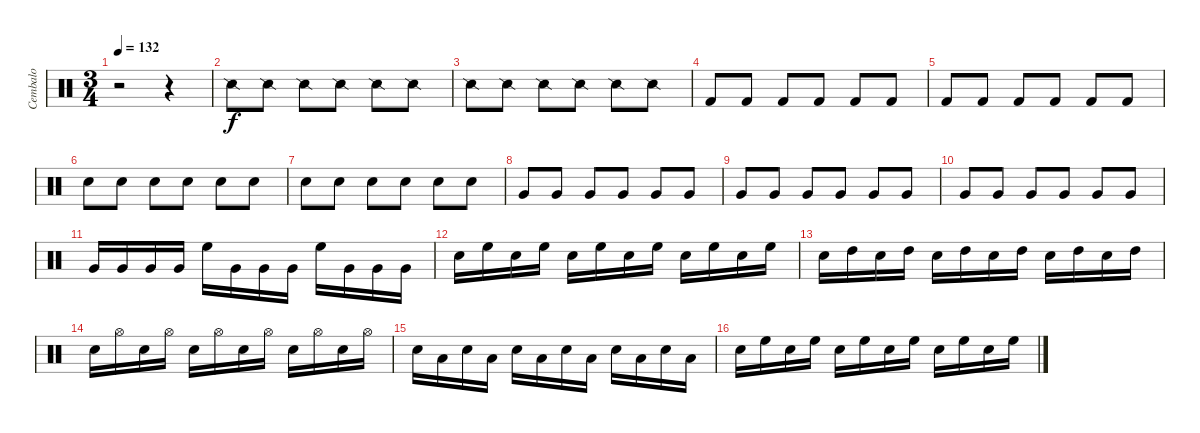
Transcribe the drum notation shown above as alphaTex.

\track ("Cembalo" "Cembalo") {instrument percussion}
\staff {score}
\articulation defaults
\ts (3 4)
\tempo 132
\clef neutral
\ks c
r.2{dy f} r.4 |
"Snare (side stick) 2".8 "Snare (side stick) 2".8 "Snare (side stick) 2".8 "Snare (side stick) 2".8 "Snare (side stick) 2".8 "Snare (side stick) 2".8 |
"Snare (side stick) 2".8 "Snare (side stick) 2".8 "Snare (side stick) 2".8 "Snare (side stick) 2".8 "Snare (side stick) 2".8 "Snare (side stick) 2".8 |
"Kick (hit) 2".8 "Kick (hit) 2".8 "Kick (hit) 2".8 "Kick (hit) 2".8 "Kick (hit) 2".8 "Kick (hit) 2".8 |
"Kick (hit) 2".8 "Kick (hit) 2".8 "Kick (hit) 2".8 "Kick (hit) 2".8 "Kick (hit) 2".8 "Kick (hit) 2".8 |
"Hand Clap (hit)".8 "Hand Clap (hit)".8 "Hand Clap (hit)".8 "Hand Clap (hit)".8 "Hand Clap (hit)".8 "Hand Clap (hit)".8 |
"Hand Clap (hit)".8 "Hand Clap (hit)".8 "Hand Clap (hit)".8 "Hand Clap (hit)".8 "Hand Clap (hit)".8 "Hand Clap (hit)".8 |
"Very Low Tom (hit)".8 "Very Low Tom (hit)".8 "Very Low Tom (hit)".8 "Very Low Tom (hit)".8 "Very Low Tom (hit)".8 "Very Low Tom (hit)".8 |
"Very Low Tom (hit)".8 "Very Low Tom (hit)".8 "Very Low Tom (hit)".8 "Very Low Tom (hit)".8 "Very Low Tom (hit)".8 "Very Low Tom (hit)".8 |
"Very Low Tom (hit)".8 "Very Low Tom (hit)".8 "Very Low Tom (hit)".8 "Very Low Tom (hit)".8 "Very Low Tom (hit)".8 "Very Low Tom (hit)".8 |
"Very Low Tom (hit)".16 "Very Low Tom (hit)".16 "Very Low Tom (hit)".16 "Very Low Tom (hit)".16 "High Floor Tom (hit)".16 "Very Low Tom (hit)".16 "Very Low Tom (hit)".16 "Very Low Tom (hit)".16 "High Floor Tom (hit)".16 "Very Low Tom (hit)".16 "Very Low Tom (hit)".16 "Very Low Tom (hit)".16 |
"Snare (hit) 2".16 "High Floor Tom (hit)".16 "Snare (hit) 2".16 "High Floor Tom (hit)".16 "Snare (hit) 2".16 "High Floor Tom (hit)".16 "Snare (hit) 2".16 "High Floor Tom (hit)".16 "Snare (hit) 2".16 "High Floor Tom (hit)".16 "Snare (hit) 2".16 "High Floor Tom (hit)".16 |
"Snare (hit) 2".16 "High Tom (hit)".16 "Snare (hit) 2".16 "High Tom (hit)".16 "Snare (hit) 2".16 "High Tom (hit)".16 "Snare (hit) 2".16 "High Tom (hit)".16 "Snare (hit) 2".16 "High Tom (hit)".16 "Snare (hit) 2".16 "High Tom (hit)".16 |
"Snare (hit) 2".16 "Hi-Hat (open)".16 "Snare (hit) 2".16 "Hi-Hat (open)".16 "Snare (hit) 2".16 "Hi-Hat (open)".16 "Snare (hit) 2".16 "Hi-Hat (open)".16 "Snare (hit) 2".16 "Hi-Hat (open)".16 "Snare (hit) 2".16 "Hi-Hat (open)".16 |
"Snare (hit) 2".16 "Low Tom (hit)".16 "Snare (hit) 2".16 "Low Tom (hit)".16 "Snare (hit) 2".16 "Low Tom (hit)".16 "Snare (hit) 2".16 "Low Tom (hit)".16 "Snare (hit) 2".16 "Low Tom (hit)".16 "Snare (hit) 2".16 "Low Tom (hit)".16 |
"Snare (hit) 2".16 "High Floor Tom (hit)".16 "Snare (hit) 2".16 "High Floor Tom (hit)".16 "Snare (hit) 2".16 "High Floor Tom (hit)".16 "Snare (hit) 2".16 "High Floor Tom (hit)".16 "Snare (hit) 2".16 "High Floor Tom (hit)".16 "Snare (hit) 2".16 "High Floor Tom (hit)".16
